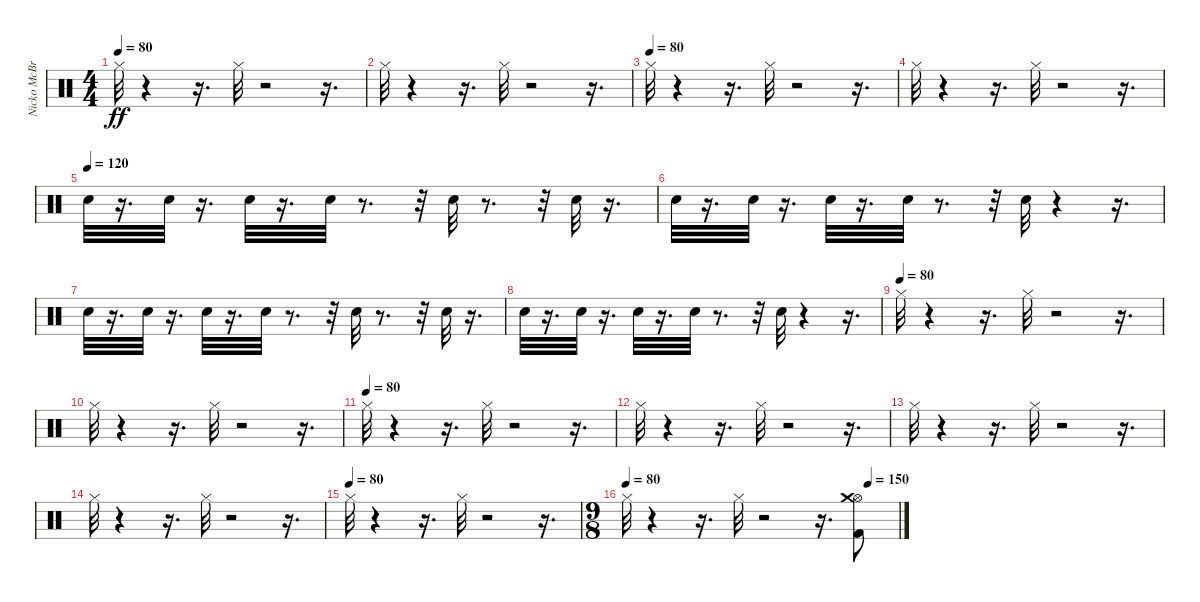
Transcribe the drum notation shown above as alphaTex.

\track ("Nicko McBrain" "Nicko McBr") {instrument percussion}
\staff {score}
\articulation defaults
\ts (4 4)
\tempo 80
\clef neutral
\ks c "Hi-Hat (closed)".32{dy ff}
r.4 r.16{d} "Hi-Hat (closed)".32 r.2 r.16{d} |
"Hi-Hat (closed)".32 r.4 r.16{d} "Hi-Hat (closed)".32 r.2 r.16{d} |
\tempo (80)
"Hi-Hat (closed)".32 r.4 r.16{d} "Hi-Hat (closed)".32 r.2 r.16{d} |
"Hi-Hat (closed)".32 r.4 r.16{d} "Hi-Hat (closed)".32 r.2 r.16{d} |
\tempo (120)
"Snare (hit) 2".32 r.16{d} "Snare (hit) 2".32 r.16{d} "Snare (hit) 2".32 r.16{d} "Snare (hit) 2".32 r.8{d} r.32 "Snare (hit) 2".32 r.8{d} r.32 "Snare (hit) 2".32 r.16{d} |
"Snare (hit) 2".32 r.16{d} "Snare (hit) 2".32 r.16{d} "Snare (hit) 2".32 r.16{d} "Snare (hit) 2".32 r.8{d} r.32 "Snare (hit) 2".32 r.4 r.16{d} |
"Snare (hit) 2".32 r.16{d} "Snare (hit) 2".32 r.16{d} "Snare (hit) 2".32 r.16{d} "Snare (hit) 2".32 r.8{d} r.32 "Snare (hit) 2".32 r.8{d} r.32 "Snare (hit) 2".32 r.16{d} |
"Snare (hit) 2".32 r.16{d} "Snare (hit) 2".32 r.16{d} "Snare (hit) 2".32 r.16{d} "Snare (hit) 2".32 r.8{d} r.32 "Snare (hit) 2".32 r.4 r.16{d} |
\tempo 112
\tempo (80)
"Hi-Hat (closed)".32 r.4 r.16{d} "Hi-Hat (closed)".32 r.2 r.16{d} |
"Hi-Hat (closed)".32 r.4 r.16{d} "Hi-Hat (closed)".32 r.2 r.16{d} |
\tempo (80)
"Hi-Hat (closed)".32 r.4 r.16{d} "Hi-Hat (closed)".32 r.2 r.16{d} |
"Hi-Hat (closed)".32 r.4 r.16{d} "Hi-Hat (closed)".32 r.2 r.16{d} |
"Hi-Hat (closed)".32 r.4 r.16{d} "Hi-Hat (closed)".32 r.2 r.16{d} |
"Hi-Hat (closed)".32 r.4 r.16{d} "Hi-Hat (closed)".32 r.2 r.16{d} |
\tempo (80)
"Hi-Hat (closed)".32 r.4 r.16{d} "Hi-Hat (closed)".32 r.2 r.16{d} |
\ts (9 8)
\tempo 112
\tempo (185 0.8888888888888888)
\tempo (150 0.8888888888888888)
\tempo (80)
"Hi-Hat (closed)".32 r.4 r.16{d} "Hi-Hat (closed)".32 r.2 r.16{d} ("Kick (hit) 2" "Hi-Hat (open)" "Crash medium (hit)").8
